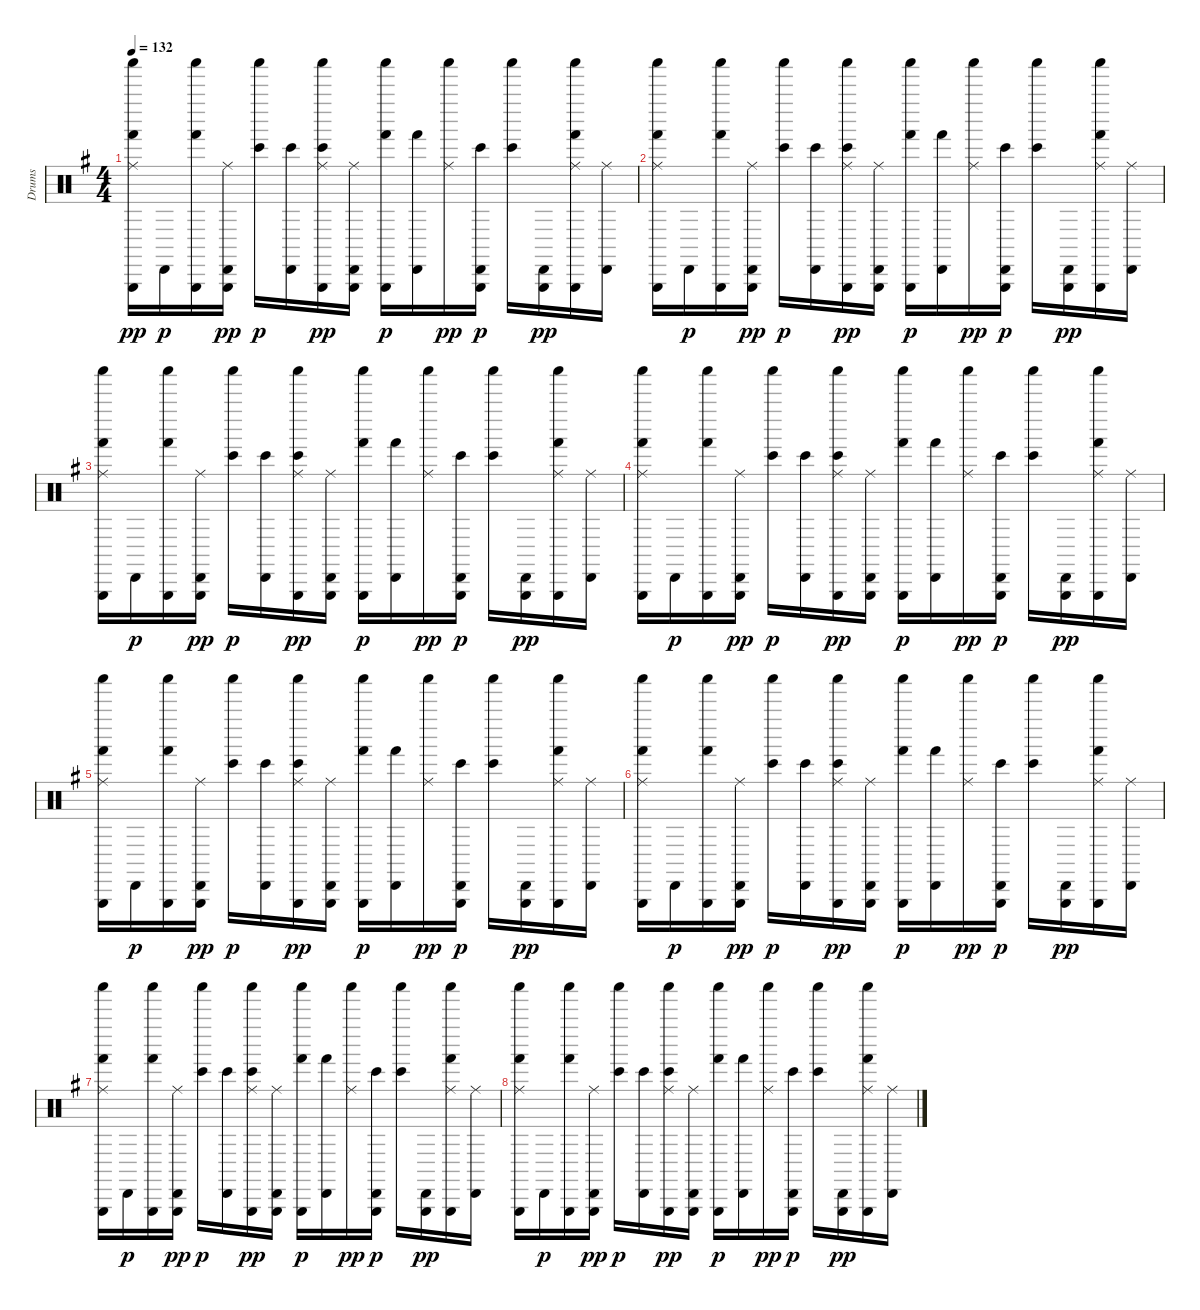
\track ("Drums" "Drums") {instrument percussion}
\staff {score}
\articulation defaults
\ts (4 4)
\tempo 132
\clef neutral
\ks g
("Shaker (hit)" "Triangle (hit)" "Hand (hit)" "Ride (middle)").16{dy pp} "Cabasa (hit)".16{dy p} ("Shaker (hit)" "Triangle (hit)" "Hand (hit)").16 ("Cabasa (hit)" "Triangle (hit)" "Ride (middle)").16{dy pp} ("Shaker (hit)" "Bongo High (hit)").16{dy p} ("Cabasa (hit)" "Bongo High (hit)").16 ("Shaker (hit)" "Triangle (hit)" "Bongo High (hit)" "Ride (middle)").16{dy pp} ("Cabasa (hit)" "Triangle (hit)" "Ride (middle)").16 ("Shaker (hit)" "Triangle (hit)" "Hand (hit)").16{dy p} ("Cabasa (hit)" "Hand (hit)").16 ("Shaker (hit)" "Ride (middle)").16{dy pp} ("Cabasa (hit)" "Triangle (hit)" "Bongo High (hit)").16{dy p} ("Shaker (hit)" "Bongo High (hit)").16 ("Cabasa (hit)" "Triangle (hit)").16{dy pp} ("Shaker (hit)" "Triangle (hit)" "Hand (hit)" "Ride (middle)").16 ("Cabasa (hit)" "Ride (middle)").16 |
("Shaker (hit)" "Triangle (hit)" "Hand (hit)" "Ride (middle)").16 "Cabasa (hit)".16{dy p} ("Shaker (hit)" "Triangle (hit)" "Hand (hit)").16 ("Cabasa (hit)" "Triangle (hit)" "Ride (middle)").16{dy pp} ("Shaker (hit)" "Bongo High (hit)").16{dy p} ("Cabasa (hit)" "Bongo High (hit)").16 ("Shaker (hit)" "Triangle (hit)" "Bongo High (hit)" "Ride (middle)").16{dy pp} ("Cabasa (hit)" "Triangle (hit)" "Ride (middle)").16 ("Shaker (hit)" "Triangle (hit)" "Hand (hit)").16{dy p} ("Cabasa (hit)" "Hand (hit)").16 ("Shaker (hit)" "Ride (middle)").16{dy pp} ("Cabasa (hit)" "Triangle (hit)" "Bongo High (hit)").16{dy p} ("Shaker (hit)" "Bongo High (hit)").16 ("Cabasa (hit)" "Triangle (hit)").16{dy pp} ("Shaker (hit)" "Triangle (hit)" "Hand (hit)" "Ride (middle)").16 ("Cabasa (hit)" "Ride (middle)").16 |
("Shaker (hit)" "Triangle (hit)" "Hand (hit)" "Ride (middle)").16 "Cabasa (hit)".16{dy p} ("Shaker (hit)" "Triangle (hit)" "Hand (hit)").16 ("Cabasa (hit)" "Triangle (hit)" "Ride (middle)").16{dy pp} ("Shaker (hit)" "Bongo High (hit)").16{dy p} ("Cabasa (hit)" "Bongo High (hit)").16 ("Shaker (hit)" "Triangle (hit)" "Bongo High (hit)" "Ride (middle)").16{dy pp} ("Cabasa (hit)" "Triangle (hit)" "Ride (middle)").16 ("Shaker (hit)" "Triangle (hit)" "Hand (hit)").16{dy p} ("Cabasa (hit)" "Hand (hit)").16 ("Shaker (hit)" "Ride (middle)").16{dy pp} ("Cabasa (hit)" "Triangle (hit)" "Bongo High (hit)").16{dy p} ("Shaker (hit)" "Bongo High (hit)").16 ("Cabasa (hit)" "Triangle (hit)").16{dy pp} ("Shaker (hit)" "Triangle (hit)" "Hand (hit)" "Ride (middle)").16 ("Cabasa (hit)" "Ride (middle)").16 |
("Shaker (hit)" "Triangle (hit)" "Hand (hit)" "Ride (middle)").16 "Cabasa (hit)".16{dy p} ("Shaker (hit)" "Triangle (hit)" "Hand (hit)").16 ("Cabasa (hit)" "Triangle (hit)" "Ride (middle)").16{dy pp} ("Shaker (hit)" "Bongo High (hit)").16{dy p} ("Cabasa (hit)" "Bongo High (hit)").16 ("Shaker (hit)" "Triangle (hit)" "Bongo High (hit)" "Ride (middle)").16{dy pp} ("Cabasa (hit)" "Triangle (hit)" "Ride (middle)").16 ("Shaker (hit)" "Triangle (hit)" "Hand (hit)").16{dy p} ("Cabasa (hit)" "Hand (hit)").16 ("Shaker (hit)" "Ride (middle)").16{dy pp} ("Cabasa (hit)" "Triangle (hit)" "Bongo High (hit)").16{dy p} ("Shaker (hit)" "Bongo High (hit)").16 ("Cabasa (hit)" "Triangle (hit)").16{dy pp} ("Shaker (hit)" "Triangle (hit)" "Hand (hit)" "Ride (middle)").16 ("Cabasa (hit)" "Ride (middle)").16 |
("Shaker (hit)" "Triangle (hit)" "Hand (hit)" "Ride (middle)").16 "Cabasa (hit)".16{dy p} ("Shaker (hit)" "Triangle (hit)" "Hand (hit)").16 ("Cabasa (hit)" "Triangle (hit)" "Ride (middle)").16{dy pp} ("Shaker (hit)" "Bongo High (hit)").16{dy p} ("Cabasa (hit)" "Bongo High (hit)").16 ("Shaker (hit)" "Triangle (hit)" "Bongo High (hit)" "Ride (middle)").16{dy pp} ("Cabasa (hit)" "Triangle (hit)" "Ride (middle)").16 ("Shaker (hit)" "Triangle (hit)" "Hand (hit)").16{dy p} ("Cabasa (hit)" "Hand (hit)").16 ("Shaker (hit)" "Ride (middle)").16{dy pp} ("Cabasa (hit)" "Triangle (hit)" "Bongo High (hit)").16{dy p} ("Shaker (hit)" "Bongo High (hit)").16 ("Cabasa (hit)" "Triangle (hit)").16{dy pp} ("Shaker (hit)" "Triangle (hit)" "Hand (hit)" "Ride (middle)").16 ("Cabasa (hit)" "Ride (middle)").16 |
("Shaker (hit)" "Triangle (hit)" "Hand (hit)" "Ride (middle)").16 "Cabasa (hit)".16{dy p} ("Shaker (hit)" "Triangle (hit)" "Hand (hit)").16 ("Cabasa (hit)" "Triangle (hit)" "Ride (middle)").16{dy pp} ("Shaker (hit)" "Bongo High (hit)").16{dy p} ("Cabasa (hit)" "Bongo High (hit)").16 ("Shaker (hit)" "Triangle (hit)" "Bongo High (hit)" "Ride (middle)").16{dy pp} ("Cabasa (hit)" "Triangle (hit)" "Ride (middle)").16 ("Shaker (hit)" "Triangle (hit)" "Hand (hit)").16{dy p} ("Cabasa (hit)" "Hand (hit)").16 ("Shaker (hit)" "Ride (middle)").16{dy pp} ("Cabasa (hit)" "Triangle (hit)" "Bongo High (hit)").16{dy p} ("Shaker (hit)" "Bongo High (hit)").16 ("Cabasa (hit)" "Triangle (hit)").16{dy pp} ("Shaker (hit)" "Triangle (hit)" "Hand (hit)" "Ride (middle)").16 ("Cabasa (hit)" "Ride (middle)").16 |
("Shaker (hit)" "Triangle (hit)" "Hand (hit)" "Ride (middle)").16 "Cabasa (hit)".16{dy p} ("Shaker (hit)" "Triangle (hit)" "Hand (hit)").16 ("Cabasa (hit)" "Triangle (hit)" "Ride (middle)").16{dy pp} ("Shaker (hit)" "Bongo High (hit)").16{dy p} ("Cabasa (hit)" "Bongo High (hit)").16 ("Shaker (hit)" "Triangle (hit)" "Bongo High (hit)" "Ride (middle)").16{dy pp} ("Cabasa (hit)" "Triangle (hit)" "Ride (middle)").16 ("Shaker (hit)" "Triangle (hit)" "Hand (hit)").16{dy p} ("Cabasa (hit)" "Hand (hit)").16 ("Shaker (hit)" "Ride (middle)").16{dy pp} ("Cabasa (hit)" "Triangle (hit)" "Bongo High (hit)").16{dy p} ("Shaker (hit)" "Bongo High (hit)").16 ("Cabasa (hit)" "Triangle (hit)").16{dy pp} ("Shaker (hit)" "Triangle (hit)" "Hand (hit)" "Ride (middle)").16 ("Cabasa (hit)" "Ride (middle)").16 |
("Shaker (hit)" "Triangle (hit)" "Hand (hit)" "Ride (middle)").16 "Cabasa (hit)".16{dy p} ("Shaker (hit)" "Triangle (hit)" "Hand (hit)").16 ("Cabasa (hit)" "Triangle (hit)" "Ride (middle)").16{dy pp} ("Shaker (hit)" "Bongo High (hit)").16{dy p} ("Cabasa (hit)" "Bongo High (hit)").16 ("Shaker (hit)" "Triangle (hit)" "Bongo High (hit)" "Ride (middle)").16{dy pp} ("Cabasa (hit)" "Triangle (hit)" "Ride (middle)").16 ("Shaker (hit)" "Triangle (hit)" "Hand (hit)").16{dy p} ("Cabasa (hit)" "Hand (hit)").16 ("Shaker (hit)" "Ride (middle)").16{dy pp} ("Cabasa (hit)" "Triangle (hit)" "Bongo High (hit)").16{dy p} ("Shaker (hit)" "Bongo High (hit)").16 ("Cabasa (hit)" "Triangle (hit)").16{dy pp} ("Shaker (hit)" "Triangle (hit)" "Hand (hit)" "Ride (middle)").16 ("Cabasa (hit)" "Ride (middle)").16
